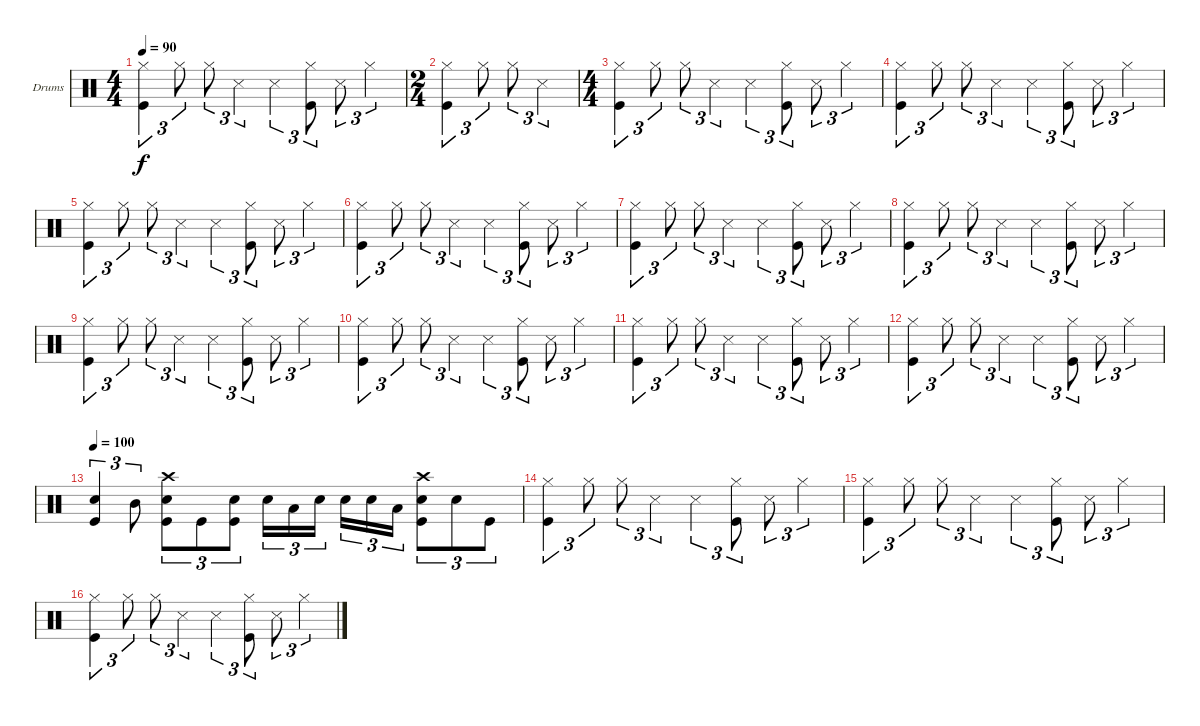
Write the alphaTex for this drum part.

\defaultSystemsLayout 4
\bracketExtendMode groupsimilarinstruments
\firstSystemTrackNameOrientation horizontal
\otherSystemsTrackNameOrientation horizontal
\track ("Drumkit" "Drums") {instrument percussion}
\staff {score}
\articulation defaults
\ts (4 4)
\tempo 90
\clef neutral
\ks c
("Hi-Hat (closed)" "Kick (hit)").4{tu (3 2) dy f} "Hi-Hat (closed)".8{tu (3 2)} "Hi-Hat (closed)".8{tu (3 2)} "Snare (side stick) 3".4{tu (3 2)} "Snare (side stick) 3".4{tu (3 2)} ("Kick (hit)" "Hi-Hat (closed)").8{tu (3 2)} "Snare (side stick) 3".8{tu (3 2)} "Hi-Hat (closed)".4{tu (3 2)} |
\ts (2 4)
("Hi-Hat (closed)" "Kick (hit)").4{tu (3 2)} "Hi-Hat (closed)".8{tu (3 2)} "Hi-Hat (closed)".8{tu (3 2)} "Snare (side stick) 3".4{tu (3 2)} |
\ts (4 4)
("Hi-Hat (closed)" "Kick (hit)").4{tu (3 2)} "Hi-Hat (closed)".8{tu (3 2)} "Hi-Hat (closed)".8{tu (3 2)} "Snare (side stick) 3".4{tu (3 2)} "Snare (side stick) 3".4{tu (3 2)} ("Kick (hit)" "Hi-Hat (closed)").8{tu (3 2)} "Snare (side stick) 3".8{tu (3 2)} "Hi-Hat (closed)".4{tu (3 2)} |
("Hi-Hat (closed)" "Kick (hit)").4{tu (3 2)} "Hi-Hat (closed)".8{tu (3 2)} "Hi-Hat (closed)".8{tu (3 2)} "Snare (side stick) 3".4{tu (3 2)} "Snare (side stick) 3".4{tu (3 2)} ("Kick (hit)" "Hi-Hat (closed)").8{tu (3 2)} "Snare (side stick) 3".8{tu (3 2)} "Hi-Hat (closed)".4{tu (3 2)} |
("Hi-Hat (closed)" "Kick (hit)").4{tu (3 2)} "Hi-Hat (closed)".8{tu (3 2)} "Hi-Hat (closed)".8{tu (3 2)} "Snare (side stick) 3".4{tu (3 2)} "Snare (side stick) 3".4{tu (3 2)} ("Kick (hit)" "Hi-Hat (closed)").8{tu (3 2)} "Snare (side stick) 3".8{tu (3 2)} "Hi-Hat (closed)".4{tu (3 2)} |
("Hi-Hat (closed)" "Kick (hit)").4{tu (3 2)} "Hi-Hat (closed)".8{tu (3 2)} "Hi-Hat (closed)".8{tu (3 2)} "Snare (side stick) 3".4{tu (3 2)} "Snare (side stick) 3".4{tu (3 2)} ("Kick (hit)" "Hi-Hat (closed)").8{tu (3 2)} "Snare (side stick) 3".8{tu (3 2)} "Hi-Hat (closed)".4{tu (3 2)} |
("Hi-Hat (closed)" "Kick (hit)").4{tu (3 2)} "Hi-Hat (closed)".8{tu (3 2)} "Hi-Hat (closed)".8{tu (3 2)} "Snare (side stick) 3".4{tu (3 2)} "Snare (side stick) 3".4{tu (3 2)} ("Kick (hit)" "Hi-Hat (closed)").8{tu (3 2)} "Snare (side stick) 3".8{tu (3 2)} "Hi-Hat (closed)".4{tu (3 2)} |
("Hi-Hat (closed)" "Kick (hit)").4{tu (3 2)} "Hi-Hat (closed)".8{tu (3 2)} "Hi-Hat (closed)".8{tu (3 2)} "Snare (side stick) 3".4{tu (3 2)} "Snare (side stick) 3".4{tu (3 2)} ("Kick (hit)" "Hi-Hat (closed)").8{tu (3 2)} "Snare (side stick) 3".8{tu (3 2)} "Hi-Hat (closed)".4{tu (3 2)} |
("Hi-Hat (closed)" "Kick (hit)").4{tu (3 2)} "Hi-Hat (closed)".8{tu (3 2)} "Hi-Hat (closed)".8{tu (3 2)} "Snare (side stick) 3".4{tu (3 2)} "Snare (side stick) 3".4{tu (3 2)} ("Kick (hit)" "Hi-Hat (closed)").8{tu (3 2)} "Snare (side stick) 3".8{tu (3 2)} "Hi-Hat (closed)".4{tu (3 2)} |
("Hi-Hat (closed)" "Kick (hit)").4{tu (3 2)} "Hi-Hat (closed)".8{tu (3 2)} "Hi-Hat (closed)".8{tu (3 2)} "Snare (side stick) 3".4{tu (3 2)} "Snare (side stick) 3".4{tu (3 2)} ("Kick (hit)" "Hi-Hat (closed)").8{tu (3 2)} "Snare (side stick) 3".8{tu (3 2)} "Hi-Hat (closed)".4{tu (3 2)} |
("Hi-Hat (closed)" "Kick (hit)").4{tu (3 2)} "Hi-Hat (closed)".8{tu (3 2)} "Hi-Hat (closed)".8{tu (3 2)} "Snare (side stick) 3".4{tu (3 2)} "Snare (side stick) 3".4{tu (3 2)} ("Kick (hit)" "Hi-Hat (closed)").8{tu (3 2)} "Snare (side stick) 3".8{tu (3 2)} "Hi-Hat (closed)".4{tu (3 2)} |
("Hi-Hat (closed)" "Kick (hit)").4{tu (3 2)} "Hi-Hat (closed)".8{tu (3 2)} "Hi-Hat (closed)".8{tu (3 2)} "Snare (side stick) 3".4{tu (3 2)} "Snare (side stick) 3".4{tu (3 2)} ("Kick (hit)" "Hi-Hat (closed)").8{tu (3 2)} "Snare (side stick) 3".8{tu (3 2)} "Hi-Hat (closed)".4{tu (3 2)} |
\tempo 100
("Kick (hit)" "Snare (hit) 2").4{tu (3 2)} "Mid Tom (hit)".8{tu (3 2)} ("Snare (hit) 2" "Crash high (hit)" "Kick (hit)").8{tu (3 2)} "Kick (hit)".8{tu (3 2)} ("Kick (hit)" "Snare (hit) 2").8{tu (3 2)} "Snare (hit) 2".16{tu (3 2)} "Low Tom (hit)".16{tu (3 2)} "Snare (hit) 2".16{tu (3 2)} "Snare (hit) 2".16{tu (3 2)} "Snare (hit) 2".16{tu (3 2)} "Low Tom (hit)".16{tu (3 2)} ("Snare (hit) 2" "Kick (hit)" "Crash high (hit)").8{tu (3 2)} "Snare (hit) 2".8{tu (3 2)} "Kick (hit)".8{tu (3 2)} |
("Hi-Hat (closed)" "Kick (hit)").4{tu (3 2)} "Hi-Hat (closed)".8{tu (3 2)} "Hi-Hat (closed)".8{tu (3 2)} "Snare (side stick) 3".4{tu (3 2)} "Snare (side stick) 3".4{tu (3 2)} ("Kick (hit)" "Hi-Hat (closed)").8{tu (3 2)} "Snare (side stick) 3".8{tu (3 2)} "Hi-Hat (closed)".4{tu (3 2)} |
("Hi-Hat (closed)" "Kick (hit)").4{tu (3 2)} "Hi-Hat (closed)".8{tu (3 2)} "Hi-Hat (closed)".8{tu (3 2)} "Snare (side stick) 3".4{tu (3 2)} "Snare (side stick) 3".4{tu (3 2)} ("Kick (hit)" "Hi-Hat (closed)").8{tu (3 2)} "Snare (side stick) 3".8{tu (3 2)} "Hi-Hat (closed)".4{tu (3 2)} |
("Hi-Hat (closed)" "Kick (hit)").4{tu (3 2)} "Hi-Hat (closed)".8{tu (3 2)} "Hi-Hat (closed)".8{tu (3 2)} "Snare (side stick) 3".4{tu (3 2)} "Snare (side stick) 3".4{tu (3 2)} ("Kick (hit)" "Hi-Hat (closed)").8{tu (3 2)} "Snare (side stick) 3".8{tu (3 2)} "Hi-Hat (closed)".4{tu (3 2)}
